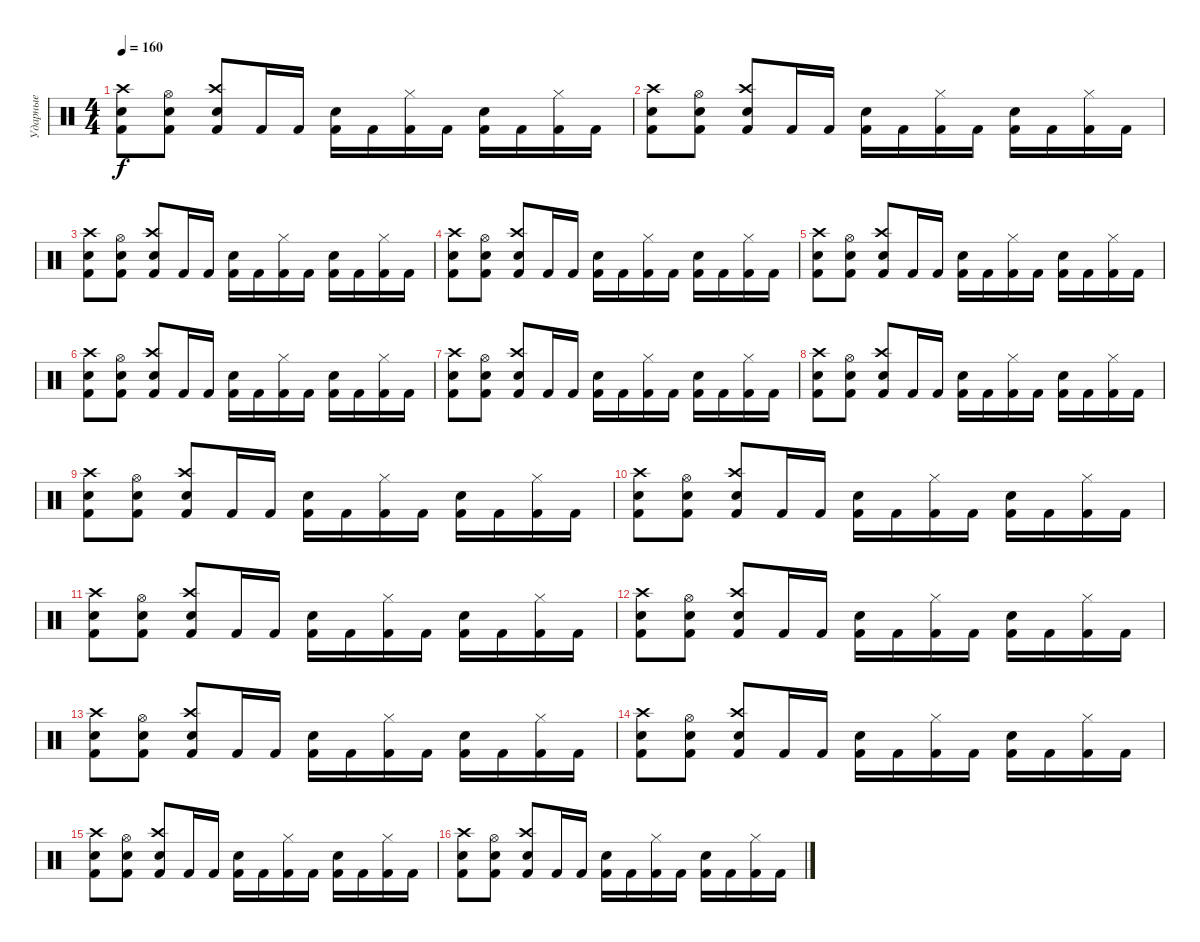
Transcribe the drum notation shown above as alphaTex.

\track ("Ударные" "Ударные") {instrument percussion}
\staff {score}
\articulation defaults
\ts (4 4)
\tempo 160
\clef neutral
\ks c
("Snare (hit) 2" "Crash high (hit)" "Kick (hit) 2").8{dy f} ("Hi-Hat (open)" "Snare (hit) 2" "Kick (hit) 2").8 ("Kick (hit) 2" "Snare (hit) 2" "Crash high (hit)").8 "Kick (hit) 2".16 "Kick (hit) 2".16 ("Snare (hit) 2" "Kick (hit) 2").16 "Kick (hit) 2".16 ("Hi-Hat (closed)" "Kick (hit) 2").16 "Kick (hit) 2".16 ("Snare (hit) 2" "Kick (hit) 2").16 "Kick (hit) 2".16 ("Hi-Hat (closed)" "Kick (hit) 2").16 "Kick (hit) 2".16 |
("Snare (hit) 2" "Crash high (hit)" "Kick (hit) 2").8 ("Hi-Hat (open)" "Snare (hit) 2" "Kick (hit) 2").8 ("Kick (hit) 2" "Snare (hit) 2" "Crash high (hit)").8 "Kick (hit) 2".16 "Kick (hit) 2".16 ("Snare (hit) 2" "Kick (hit) 2").16 "Kick (hit) 2".16 ("Hi-Hat (closed)" "Kick (hit) 2").16 "Kick (hit) 2".16 ("Snare (hit) 2" "Kick (hit) 2").16 "Kick (hit) 2".16 ("Hi-Hat (closed)" "Kick (hit) 2").16 "Kick (hit) 2".16 |
("Snare (hit) 2" "Crash high (hit)" "Kick (hit) 2").8 ("Hi-Hat (open)" "Snare (hit) 2" "Kick (hit) 2").8 ("Kick (hit) 2" "Snare (hit) 2" "Crash high (hit)").8 "Kick (hit) 2".16 "Kick (hit) 2".16 ("Snare (hit) 2" "Kick (hit) 2").16 "Kick (hit) 2".16 ("Hi-Hat (closed)" "Kick (hit) 2").16 "Kick (hit) 2".16 ("Snare (hit) 2" "Kick (hit) 2").16 "Kick (hit) 2".16 ("Hi-Hat (closed)" "Kick (hit) 2").16 "Kick (hit) 2".16 |
("Snare (hit) 2" "Crash high (hit)" "Kick (hit) 2").8 ("Hi-Hat (open)" "Snare (hit) 2" "Kick (hit) 2").8 ("Kick (hit) 2" "Snare (hit) 2" "Crash high (hit)").8 "Kick (hit) 2".16 "Kick (hit) 2".16 ("Snare (hit) 2" "Kick (hit) 2").16 "Kick (hit) 2".16 ("Hi-Hat (closed)" "Kick (hit) 2").16 "Kick (hit) 2".16 ("Snare (hit) 2" "Kick (hit) 2").16 "Kick (hit) 2".16 ("Hi-Hat (closed)" "Kick (hit) 2").16 "Kick (hit) 2".16 |
("Snare (hit) 2" "Crash high (hit)" "Kick (hit) 2").8 ("Hi-Hat (open)" "Snare (hit) 2" "Kick (hit) 2").8 ("Kick (hit) 2" "Snare (hit) 2" "Crash high (hit)").8 "Kick (hit) 2".16 "Kick (hit) 2".16 ("Snare (hit) 2" "Kick (hit) 2").16 "Kick (hit) 2".16 ("Hi-Hat (closed)" "Kick (hit) 2").16 "Kick (hit) 2".16 ("Snare (hit) 2" "Kick (hit) 2").16 "Kick (hit) 2".16 ("Hi-Hat (closed)" "Kick (hit) 2").16 "Kick (hit) 2".16 |
("Snare (hit) 2" "Crash high (hit)" "Kick (hit) 2").8 ("Hi-Hat (open)" "Snare (hit) 2" "Kick (hit) 2").8 ("Kick (hit) 2" "Snare (hit) 2" "Crash high (hit)").8 "Kick (hit) 2".16 "Kick (hit) 2".16 ("Snare (hit) 2" "Kick (hit) 2").16 "Kick (hit) 2".16 ("Hi-Hat (closed)" "Kick (hit) 2").16 "Kick (hit) 2".16 ("Snare (hit) 2" "Kick (hit) 2").16 "Kick (hit) 2".16 ("Hi-Hat (closed)" "Kick (hit) 2").16 "Kick (hit) 2".16 |
("Snare (hit) 2" "Crash high (hit)" "Kick (hit) 2").8 ("Hi-Hat (open)" "Snare (hit) 2" "Kick (hit) 2").8 ("Kick (hit) 2" "Snare (hit) 2" "Crash high (hit)").8 "Kick (hit) 2".16 "Kick (hit) 2".16 ("Snare (hit) 2" "Kick (hit) 2").16 "Kick (hit) 2".16 ("Hi-Hat (closed)" "Kick (hit) 2").16 "Kick (hit) 2".16 ("Snare (hit) 2" "Kick (hit) 2").16 "Kick (hit) 2".16 ("Hi-Hat (closed)" "Kick (hit) 2").16 "Kick (hit) 2".16 |
("Snare (hit) 2" "Crash high (hit)" "Kick (hit) 2").8 ("Hi-Hat (open)" "Snare (hit) 2" "Kick (hit) 2").8 ("Kick (hit) 2" "Snare (hit) 2" "Crash high (hit)").8 "Kick (hit) 2".16 "Kick (hit) 2".16 ("Snare (hit) 2" "Kick (hit) 2").16 "Kick (hit) 2".16 ("Hi-Hat (closed)" "Kick (hit) 2").16 "Kick (hit) 2".16 ("Snare (hit) 2" "Kick (hit) 2").16 "Kick (hit) 2".16 ("Hi-Hat (closed)" "Kick (hit) 2").16 "Kick (hit) 2".16 |
("Snare (hit) 2" "Crash high (hit)" "Kick (hit) 2").8 ("Hi-Hat (open)" "Snare (hit) 2" "Kick (hit) 2").8 ("Kick (hit) 2" "Snare (hit) 2" "Crash high (hit)").8 "Kick (hit) 2".16 "Kick (hit) 2".16 ("Snare (hit) 2" "Kick (hit) 2").16 "Kick (hit) 2".16 ("Hi-Hat (closed)" "Kick (hit) 2").16 "Kick (hit) 2".16 ("Snare (hit) 2" "Kick (hit) 2").16 "Kick (hit) 2".16 ("Hi-Hat (closed)" "Kick (hit) 2").16 "Kick (hit) 2".16 |
("Snare (hit) 2" "Crash high (hit)" "Kick (hit) 2").8 ("Hi-Hat (open)" "Snare (hit) 2" "Kick (hit) 2").8 ("Kick (hit) 2" "Snare (hit) 2" "Crash high (hit)").8 "Kick (hit) 2".16 "Kick (hit) 2".16 ("Snare (hit) 2" "Kick (hit) 2").16 "Kick (hit) 2".16 ("Hi-Hat (closed)" "Kick (hit) 2").16 "Kick (hit) 2".16 ("Snare (hit) 2" "Kick (hit) 2").16 "Kick (hit) 2".16 ("Hi-Hat (closed)" "Kick (hit) 2").16 "Kick (hit) 2".16 |
("Snare (hit) 2" "Crash high (hit)" "Kick (hit) 2").8 ("Hi-Hat (open)" "Snare (hit) 2" "Kick (hit) 2").8 ("Kick (hit) 2" "Snare (hit) 2" "Crash high (hit)").8 "Kick (hit) 2".16 "Kick (hit) 2".16 ("Snare (hit) 2" "Kick (hit) 2").16 "Kick (hit) 2".16 ("Hi-Hat (closed)" "Kick (hit) 2").16 "Kick (hit) 2".16 ("Snare (hit) 2" "Kick (hit) 2").16 "Kick (hit) 2".16 ("Hi-Hat (closed)" "Kick (hit) 2").16 "Kick (hit) 2".16 |
("Snare (hit) 2" "Crash high (hit)" "Kick (hit) 2").8 ("Hi-Hat (open)" "Snare (hit) 2" "Kick (hit) 2").8 ("Kick (hit) 2" "Snare (hit) 2" "Crash high (hit)").8 "Kick (hit) 2".16 "Kick (hit) 2".16 ("Snare (hit) 2" "Kick (hit) 2").16 "Kick (hit) 2".16 ("Hi-Hat (closed)" "Kick (hit) 2").16 "Kick (hit) 2".16 ("Snare (hit) 2" "Kick (hit) 2").16 "Kick (hit) 2".16 ("Hi-Hat (closed)" "Kick (hit) 2").16 "Kick (hit) 2".16 |
("Snare (hit) 2" "Crash high (hit)" "Kick (hit) 2").8 ("Hi-Hat (open)" "Snare (hit) 2" "Kick (hit) 2").8 ("Kick (hit) 2" "Snare (hit) 2" "Crash high (hit)").8 "Kick (hit) 2".16 "Kick (hit) 2".16 ("Snare (hit) 2" "Kick (hit) 2").16 "Kick (hit) 2".16 ("Hi-Hat (closed)" "Kick (hit) 2").16 "Kick (hit) 2".16 ("Snare (hit) 2" "Kick (hit) 2").16 "Kick (hit) 2".16 ("Hi-Hat (closed)" "Kick (hit) 2").16 "Kick (hit) 2".16 |
("Snare (hit) 2" "Crash high (hit)" "Kick (hit) 2").8 ("Hi-Hat (open)" "Snare (hit) 2" "Kick (hit) 2").8 ("Kick (hit) 2" "Snare (hit) 2" "Crash high (hit)").8 "Kick (hit) 2".16 "Kick (hit) 2".16 ("Snare (hit) 2" "Kick (hit) 2").16 "Kick (hit) 2".16 ("Hi-Hat (closed)" "Kick (hit) 2").16 "Kick (hit) 2".16 ("Snare (hit) 2" "Kick (hit) 2").16 "Kick (hit) 2".16 ("Hi-Hat (closed)" "Kick (hit) 2").16 "Kick (hit) 2".16 |
("Snare (hit) 2" "Crash high (hit)" "Kick (hit) 2").8 ("Hi-Hat (open)" "Snare (hit) 2" "Kick (hit) 2").8 ("Kick (hit) 2" "Snare (hit) 2" "Crash high (hit)").8 "Kick (hit) 2".16 "Kick (hit) 2".16 ("Snare (hit) 2" "Kick (hit) 2").16 "Kick (hit) 2".16 ("Hi-Hat (closed)" "Kick (hit) 2").16 "Kick (hit) 2".16 ("Snare (hit) 2" "Kick (hit) 2").16 "Kick (hit) 2".16 ("Hi-Hat (closed)" "Kick (hit) 2").16 "Kick (hit) 2".16 |
("Snare (hit) 2" "Crash high (hit)" "Kick (hit) 2").8 ("Hi-Hat (open)" "Snare (hit) 2" "Kick (hit) 2").8 ("Kick (hit) 2" "Snare (hit) 2" "Crash high (hit)").8 "Kick (hit) 2".16 "Kick (hit) 2".16 ("Snare (hit) 2" "Kick (hit) 2").16 "Kick (hit) 2".16 ("Hi-Hat (closed)" "Kick (hit) 2").16 "Kick (hit) 2".16 ("Snare (hit) 2" "Kick (hit) 2").16 "Kick (hit) 2".16 ("Hi-Hat (closed)" "Kick (hit) 2").16 "Kick (hit) 2".16
